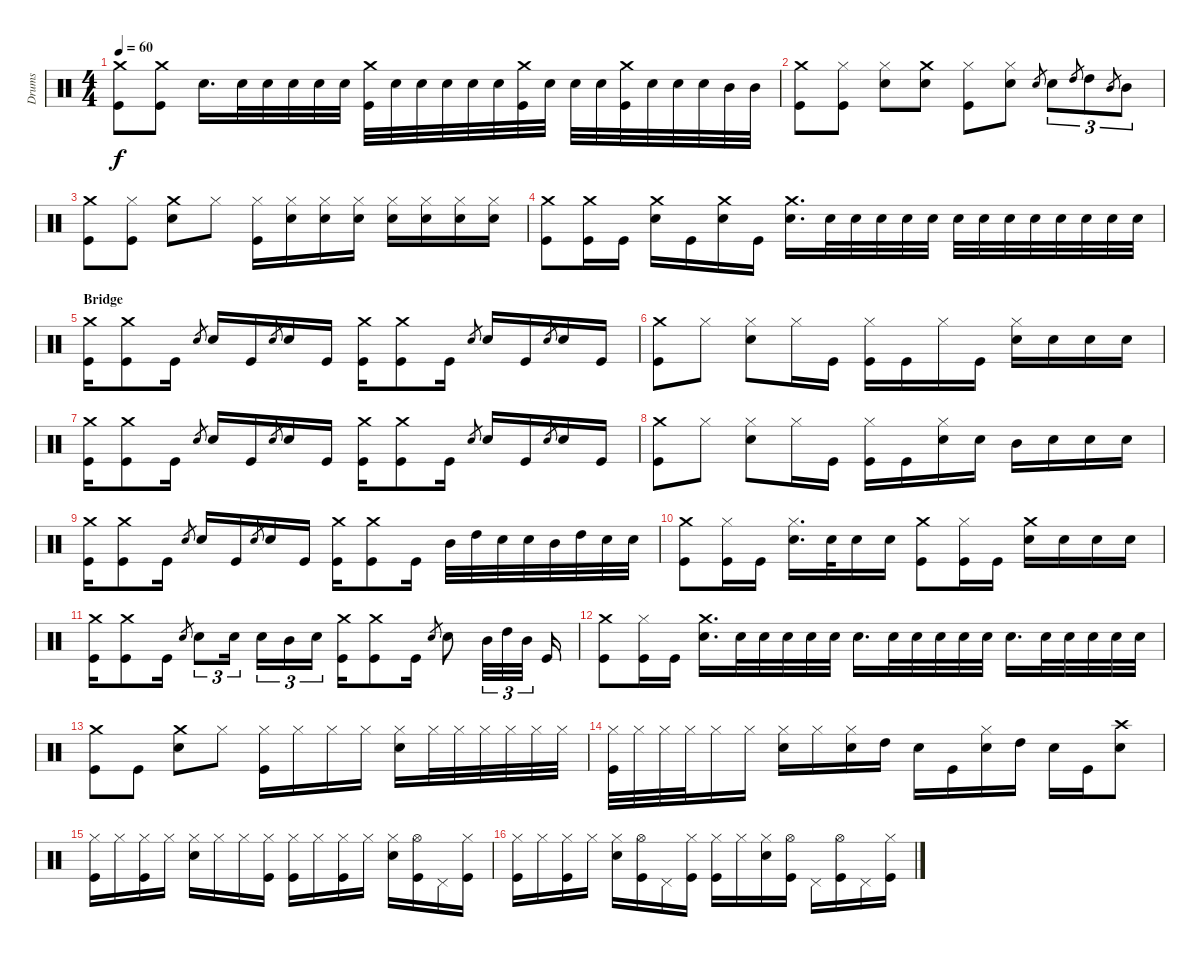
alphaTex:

\track ("Drums" "Drums") {instrument percussion}
\staff {score}
\articulation defaults
\ts (4 4)
\tempo 60
\clef neutral
\ks c
("Kick (hit)" "Crash medium (hit)").8{dy f} ("Kick (hit)" "Crash medium (hit)").8 "Electric Snare (hit)".16{d} "Electric Snare (hit)".32 "Electric Snare (hit)".32 "Electric Snare (hit)".32 "Electric Snare (hit)".32 "Electric Snare (hit)".32 ("Kick (hit)" "Crash medium (hit)").32 "Electric Snare (hit)".32 "Electric Snare (hit)".32 "Electric Snare (hit)".32 "Electric Snare (hit)".32 "Electric Snare (hit)".32 ("Kick (hit)" "Crash medium (hit)").32 "Electric Snare (hit)".32 "Electric Snare (hit)".32 "Electric Snare (hit)".32 ("Kick (hit)" "Crash medium (hit)").32 "Electric Snare (hit)".32 "Electric Snare (hit)".32 "Electric Snare (hit)".32 "Mid Tom (hit)".32 "Mid Tom (hit)".32 |
("Kick (hit)" "Crash medium (hit)").8 ("Kick (hit)" "Hi-Hat (closed)").8 ("Electric Snare (hit)" "Hi-Hat (closed)").8 ("Electric Snare (hit)" "Crash medium (hit)").8 ("Kick (hit)" "Hi-Hat (closed)").8 ("Electric Snare (hit)" "Hi-Hat (closed)").8 "Electric Snare (hit)".8{gr} "Electric Snare (hit)".8{tu (3 2)} "High Tom (hit)".8{gr} "High Tom (hit)".8{tu (3 2)} "Mid Tom (hit)".8{gr} "Mid Tom (hit)".8{tu (3 2)} |
("Kick (hit)" "Crash medium (hit)").8 ("Kick (hit)" "Hi-Hat (closed)").8 ("Electric Snare (hit)" "Crash medium (hit)").8 "Hi-Hat (closed)".8 ("Kick (hit)" "Hi-Hat (closed)").16 ("Electric Snare (hit)" "Hi-Hat (closed)").16 ("Electric Snare (hit)" "Hi-Hat (closed)").16 ("Electric Snare (hit)" "Hi-Hat (closed)").16 ("Electric Snare (hit)" "Hi-Hat (closed)").16 ("Electric Snare (hit)" "Hi-Hat (closed)").16 ("Electric Snare (hit)" "Hi-Hat (closed)").16 ("Electric Snare (hit)" "Hi-Hat (closed)").16 |
("Kick (hit)" "Crash medium (hit)").8 ("Kick (hit)" "Crash medium (hit)").16 "Kick (hit)".16 ("Electric Snare (hit)" "Crash medium (hit)").16 "Kick (hit)".16 ("Electric Snare (hit)" "Crash medium (hit)").16 "Kick (hit)".16 ("Electric Snare (hit)" "Crash medium (hit)").16{d} "Electric Snare (hit)".32 "Electric Snare (hit)".32 "Electric Snare (hit)".32 "Electric Snare (hit)".32 "Electric Snare (hit)".32 "Electric Snare (hit)".32 "Electric Snare (hit)".32 "Electric Snare (hit)".32 "Electric Snare (hit)".32 "Electric Snare (hit)".32 "Electric Snare (hit)".32 "Electric Snare (hit)".32 "Electric Snare (hit)".32 |
\section ("" "Bridge")
("Kick (hit)" "Crash medium (hit)").16 ("Kick (hit)" "Crash medium (hit)").8 "Kick (hit)".16 "Electric Snare (hit)".8{gr} "Electric Snare (hit)".16 "Kick (hit)".16 "Electric Snare (hit)".8{gr} "Electric Snare (hit)".16 "Kick (hit)".16 ("Kick (hit)" "Crash medium (hit)").16 ("Kick (hit)" "Crash medium (hit)").8 "Kick (hit)".16 "Electric Snare (hit)".8{gr} "Electric Snare (hit)".16 "Kick (hit)".16 "Electric Snare (hit)".8{gr} "Electric Snare (hit)".16 "Kick (hit)".16 |
("Kick (hit)" "Crash medium (hit)").8 "Hi-Hat (closed)".8 ("Electric Snare (hit)" "Hi-Hat (closed)").8 "Hi-Hat (closed)".16 "Kick (hit)".16 ("Kick (hit)" "Hi-Hat (closed)").16 "Kick (hit)".16 "Hi-Hat (closed)".16 "Kick (hit)".16 ("Electric Snare (hit)" "Hi-Hat (closed)").16 "Electric Snare (hit)".16 "Electric Snare (hit)".16 "Electric Snare (hit)".16 |
("Kick (hit)" "Crash medium (hit)").16 ("Kick (hit)" "Crash medium (hit)").8 "Kick (hit)".16 "Electric Snare (hit)".8{gr} "Electric Snare (hit)".16 "Kick (hit)".16 "Electric Snare (hit)".8{gr} "Electric Snare (hit)".16 "Kick (hit)".16 ("Kick (hit)" "Crash medium (hit)").16 ("Kick (hit)" "Crash medium (hit)").8 "Kick (hit)".16 "Electric Snare (hit)".8{gr} "Electric Snare (hit)".16 "Kick (hit)".16 "Electric Snare (hit)".8{gr} "Electric Snare (hit)".16 "Kick (hit)".16 |
("Kick (hit)" "Crash medium (hit)").8 "Hi-Hat (closed)".8 ("Electric Snare (hit)" "Hi-Hat (closed)").8 "Hi-Hat (closed)".16 "Kick (hit)".16 ("Kick (hit)" "Hi-Hat (closed)").16 "Kick (hit)".16 ("Electric Snare (hit)" "Hi-Hat (closed)").16 "Electric Snare (hit)".16 "Mid Tom (hit)".16 "Electric Snare (hit)".16 "Electric Snare (hit)".16 "Electric Snare (hit)".16 |
("Kick (hit)" "Crash medium (hit)").16 ("Kick (hit)" "Crash medium (hit)").8 "Kick (hit)".16 "Electric Snare (hit)".8{gr} "Electric Snare (hit)".16 "Kick (hit)".16 "Electric Snare (hit)".8{gr} "Electric Snare (hit)".16 "Kick (hit)".16 ("Kick (hit)" "Crash medium (hit)").16 ("Kick (hit)" "Crash medium (hit)").8 "Kick (hit)".16 "Mid Tom (hit)".32 "High Tom (hit)".32 "Electric Snare (hit)".32 "Electric Snare (hit)".32 "Mid Tom (hit)".32 "High Tom (hit)".32 "Electric Snare (hit)".32 "Electric Snare (hit)".32 |
("Kick (hit)" "Crash medium (hit)").8 ("Kick (hit)" "Hi-Hat (closed)").16 "Kick (hit)".16 ("Electric Snare (hit)" "Hi-Hat (closed)").16{d} "Electric Snare (hit)".32 "Electric Snare (hit)".16 "Electric Snare (hit)".16 ("Kick (hit)" "Crash medium (hit)").8 ("Kick (hit)" "Hi-Hat (closed)").16 "Kick (hit)".16 ("Electric Snare (hit)" "Crash medium (hit)").16 "Electric Snare (hit)".16 "Electric Snare (hit)".16 "Electric Snare (hit)".16 |
("Kick (hit)" "Crash medium (hit)").16 ("Kick (hit)" "Crash medium (hit)").8 "Kick (hit)".16 "Electric Snare (hit)".8{gr} "Electric Snare (hit)".8{tu (3 2)} "Electric Snare (hit)".16{tu (3 2)} "Electric Snare (hit)".16{tu (3 2)} "Mid Tom (hit)".16{tu (3 2)} "Electric Snare (hit)".16{tu (3 2)} ("Kick (hit)" "Crash medium (hit)").16 ("Kick (hit)" "Crash medium (hit)").8 "Kick (hit)".16 "Electric Snare (hit)".8{gr} "Electric Snare (hit)".8 "Mid Tom (hit)".32{tu (3 2)} "High Tom (hit)".32{tu (3 2)} "Mid Tom (hit)".32{tu (3 2)} "Kick (hit)".16 |
("Kick (hit)" "Crash medium (hit)").8 ("Kick (hit)" "Hi-Hat (closed)").16 "Kick (hit)".16 ("Electric Snare (hit)" "Crash medium (hit)").16{d} "Electric Snare (hit)".32 "Electric Snare (hit)".32 "Electric Snare (hit)".32 "Electric Snare (hit)".32 "Electric Snare (hit)".32 "Electric Snare (hit)".16{d} "Electric Snare (hit)".32 "Electric Snare (hit)".32 "Electric Snare (hit)".32 "Electric Snare (hit)".32 "Electric Snare (hit)".32 "Electric Snare (hit)".16{d} "Electric Snare (hit)".32 "Electric Snare (hit)".32 "Electric Snare (hit)".32 "Electric Snare (hit)".32 "Electric Snare (hit)".32 |
("Kick (hit)" "Crash medium (hit)").8 "Kick (hit)".8 ("Electric Snare (hit)" "Crash medium (hit)").8 "Hi-Hat (closed)".8 ("Kick (hit)" "Hi-Hat (closed)").16 "Hi-Hat (closed)".16 "Hi-Hat (closed)".16 "Hi-Hat (closed)".16 ("Electric Snare (hit)" "Hi-Hat (closed)").16 "Hi-Hat (closed)".32 "Hi-Hat (closed)".32 "Hi-Hat (closed)".32 "Hi-Hat (closed)".32 "Hi-Hat (closed)".32 "Hi-Hat (closed)".32 |
("Kick (hit)" "Hi-Hat (closed)").32 "Hi-Hat (closed)".32 "Hi-Hat (closed)".32 "Hi-Hat (closed)".32 "Hi-Hat (closed)".16 "Hi-Hat (closed)".16 ("Electric Snare (hit)" "Hi-Hat (closed)").16 "Hi-Hat (closed)".16 ("Electric Snare (hit)" "Hi-Hat (closed)").16 "High Tom (hit)".16 "Electric Snare (hit)".16 "Kick (hit)".16 ("Electric Snare (hit)" "Hi-Hat (closed)").16 "High Tom (hit)".16 "Electric Snare (hit)".16 "Kick (hit)".16 ("Electric Snare (hit)" "Crash high (hit)").8 |
("Kick (hit)" "Hi-Hat (closed)").16 "Hi-Hat (closed)".16 ("Kick (hit)" "Hi-Hat (closed)").16 "Hi-Hat (closed)".16 ("Electric Snare (hit)" "Hi-Hat (closed)").16 "Hi-Hat (closed)".16 "Hi-Hat (closed)".16 ("Kick (hit)" "Hi-Hat (closed)").16 ("Kick (hit)" "Hi-Hat (closed)").16 "Hi-Hat (closed)".16 ("Kick (hit)" "Hi-Hat (closed)").16 "Hi-Hat (closed)".16 ("Electric Snare (hit)" "Hi-Hat (closed)").16 ("Kick (hit)" "Hi-Hat (open)").16 "Pedal Hi-Hat (hit)".16 ("Kick (hit)" "Hi-Hat (closed)").16 |
("Kick (hit)" "Hi-Hat (closed)").16 "Hi-Hat (closed)".16 ("Kick (hit)" "Hi-Hat (closed)").16 "Hi-Hat (closed)".16 ("Electric Snare (hit)" "Hi-Hat (closed)").16 ("Kick (hit)" "Hi-Hat (open)").16 "Pedal Hi-Hat (hit)".16 ("Kick (hit)" "Hi-Hat (closed)").16 ("Kick (hit)" "Hi-Hat (closed)").16 "Hi-Hat (closed)".16 ("Electric Snare (hit)" "Hi-Hat (closed)").16 ("Kick (hit)" "Hi-Hat (open)").16 "Pedal Hi-Hat (hit)".16 ("Kick (hit)" "Hi-Hat (open)").16 "Pedal Hi-Hat (hit)".16 ("Kick (hit)" "Hi-Hat (closed)").16
